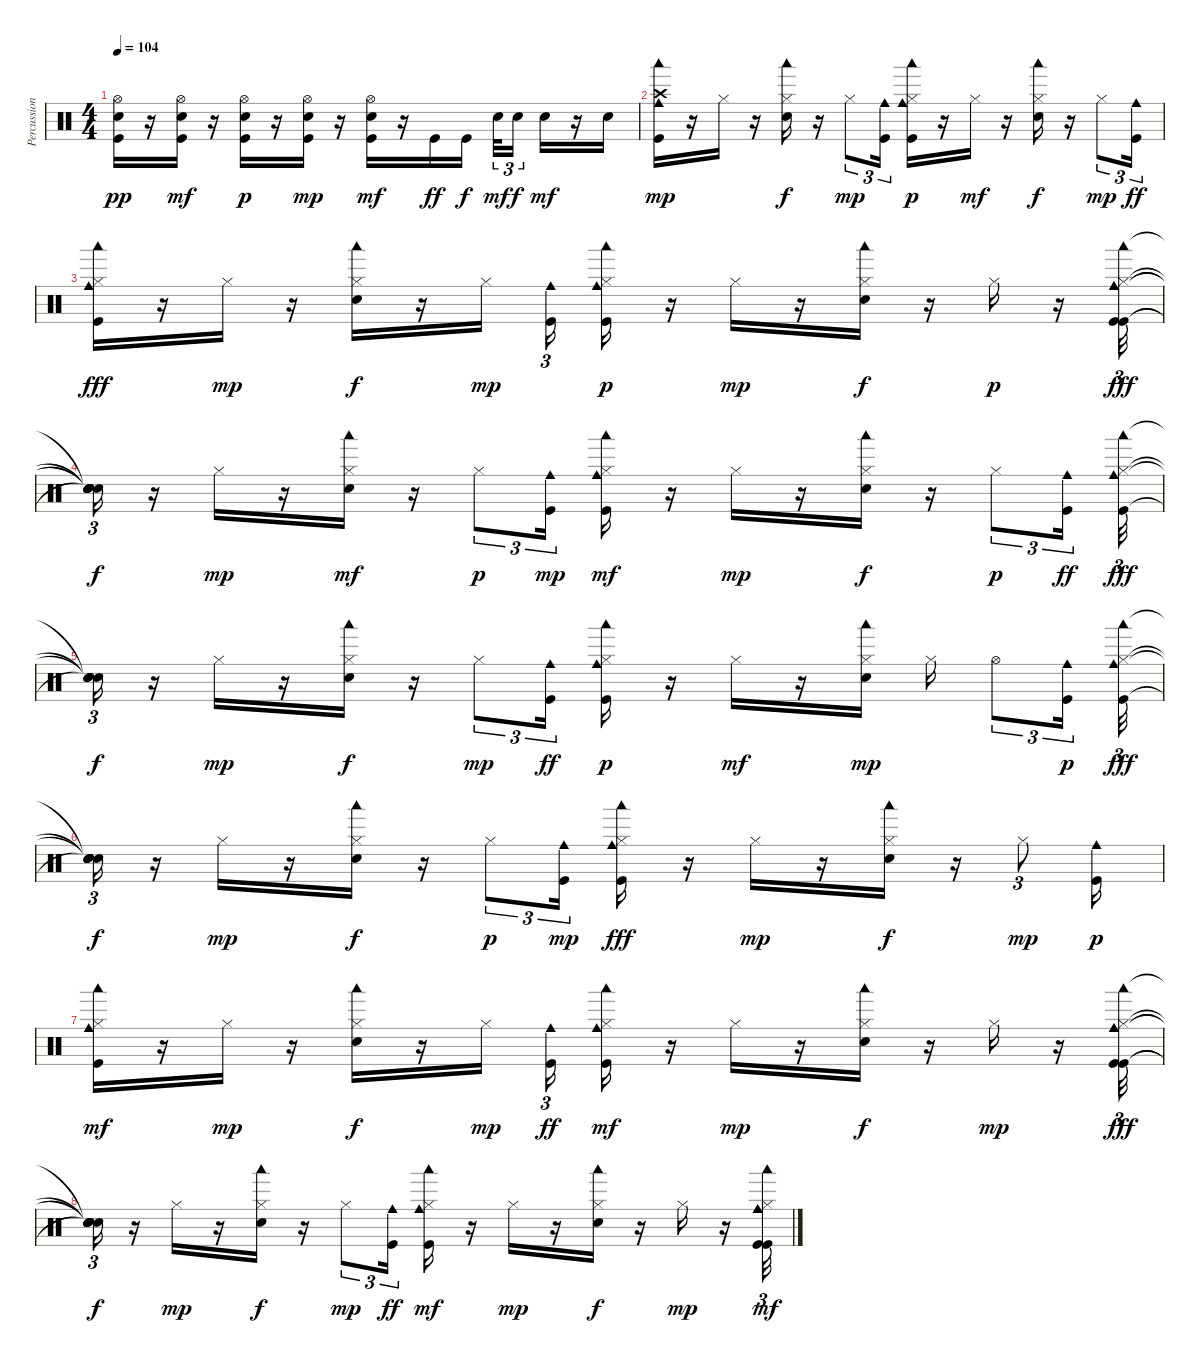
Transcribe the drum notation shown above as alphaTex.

\track ("Percussions (drums + hihats)" "Percussion") {instrument percussion}
\staff {score}
\articulation defaults
\ts (4 4)
\tempo 104
\clef neutral
\ks c
("Kick (hit)" "Electric Snare (hit)" "Hi-Hat (open)").16{dy pp} r.16 ("Hi-Hat (open)" "Electric Snare (hit)" "Kick (hit)").16{dy mf} r.16 ("Electric Snare (hit)" "Hi-Hat (open)" "Kick (hit)").16{dy p} r.16 ("Kick (hit)" "Electric Snare (hit)" "Hi-Hat (open)").16{dy mp} r.16 ("Electric Snare (hit)" "Kick (hit)" "Hi-Hat (open)").16{dy mf} r.16 "Kick (hit)".16{dy ff} "Kick (hit)".16{dy f} "Electric Snare (hit)".32{tu (3 2) dy mf} "Electric Snare (hit)".16{tu (3 2) dy f} "Electric Snare (hit)".16{dy mf} r.16 "Electric Snare (hit)".16 |
("Kick (hit)" "Woodblock low (hit)" "Crash high (hit)" "Cowbell medium (hit)").16{dy mp} r.16 "Hi-Hat (closed)".16 r.16 ("Hi-Hat (closed)" "Woodblock low (hit)" "Electric Snare (hit)").16{dy f} r.16 "Hi-Hat (closed)".8{tu (3 2) dy mp} ("Kick (hit)" "Cowbell medium (hit)").16{tu (3 2)} ("Kick (hit)" "Hi-Hat (closed)" "Woodblock low (hit)" "Cowbell medium (hit)").16{dy p} r.16 "Hi-Hat (closed)".16{dy mf} r.16 ("Woodblock low (hit)" "Electric Snare (hit)" "Hi-Hat (closed)").16{dy f} r.16 "Hi-Hat (closed)".8{tu (3 2) dy mp} ("Cowbell medium (hit)" "Kick (hit)").16{tu (3 2) dy ff} |
("Woodblock low (hit)" "Hi-Hat (closed)" "Cowbell medium (hit)" "Kick (hit)").16{dy fff} r.16 "Hi-Hat (closed)".16{dy mp} r.16 ("Electric Snare (hit)" "Woodblock low (hit)" "Hi-Hat (closed)").16{dy f} r.16 "Hi-Hat (closed)".16{dy mp} ("Kick (hit)" "Cowbell medium (hit)").16{tu (3 2)} ("Woodblock low (hit)" "Hi-Hat (closed)" "Kick (hit)" "Cowbell medium (hit)").16{dy p} r.16 "Hi-Hat (closed)".16{dy mp} r.16 ("Hi-Hat (closed)" "Woodblock low (hit)" "Electric Snare (hit)").16{dy f} r.16 "Hi-Hat (closed)".16{dy p} r.16 ("Kick (hit)" "Cowbell medium (hit)" "Cowbell medium (hit)" "Hi-Hat (closed)" "Kick (hit)" "Woodblock low (hit)").32{tu (3 2) dy fff} |
("Snare (hit)"{t} "Snare (hit)"{t} "Snare (hit)"{t} "Snare (hit)"{t} "Snare (hit)"{t} "Snare (hit)"{t}).16{tu (3 2) dy f} r.16 "Hi-Hat (closed)".16{dy mp} r.16 ("Electric Snare (hit)" "Woodblock low (hit)" "Hi-Hat (closed)").16{dy mf} r.16 "Hi-Hat (closed)".8{tu (3 2) dy p} ("Kick (hit)" "Cowbell medium (hit)").16{tu (3 2) dy mp} ("Woodblock low (hit)" "Cowbell medium (hit)" "Kick (hit)" "Hi-Hat (closed)").16{dy mf} r.16 "Hi-Hat (closed)".16{dy mp} r.16 ("Woodblock low (hit)" "Hi-Hat (closed)" "Electric Snare (hit)").16{dy f} r.16 "Hi-Hat (closed)".8{tu (3 2) dy p} ("Cowbell medium (hit)" "Kick (hit)").16{tu (3 2) dy ff} ("Woodblock low (hit)" "Cowbell medium (hit)" "Hi-Hat (closed)" "Kick (hit)").32{tu (3 2) dy fff} |
("Snare (hit)"{t} "Snare (hit)"{t} "Snare (hit)"{t} "Snare (hit)"{t}).16{tu (3 2) dy f} r.16 "Hi-Hat (closed)".16{dy mp} r.16 ("Woodblock low (hit)" "Electric Snare (hit)" "Hi-Hat (closed)").16{dy f} r.16 "Hi-Hat (closed)".8{tu (3 2) dy mp} ("Cowbell medium (hit)" "Kick (hit)").16{tu (3 2) dy ff} ("Hi-Hat (closed)" "Kick (hit)" "Woodblock low (hit)" "Cowbell medium (hit)").16{dy p} r.16 "Hi-Hat (closed)".16{dy mf} r.16 ("Electric Snare (hit)" "Woodblock low (hit)" "Hi-Hat (closed)").16{dy mp} "Hi-Hat (closed)".16 "Hi-Hat (open)".8{tu (3 2)} ("Kick (hit)" "Cowbell medium (hit)").16{tu (3 2) dy p} ("Hi-Hat (closed)" "Woodblock low (hit)" "Cowbell medium (hit)" "Kick (hit)").32{tu (3 2) dy fff} |
("Snare (hit)"{t} "Snare (hit)"{t} "Snare (hit)"{t} "Snare (hit)"{t}).16{tu (3 2) dy f} r.16 "Hi-Hat (closed)".16{dy mp} r.16 ("Hi-Hat (closed)" "Woodblock low (hit)" "Electric Snare (hit)").16{dy f} r.16 "Hi-Hat (closed)".8{tu (3 2) dy p} ("Kick (hit)" "Cowbell medium (hit)").16{tu (3 2) dy mp} ("Cowbell medium (hit)" "Hi-Hat (closed)" "Kick (hit)" "Woodblock low (hit)").16{dy fff} r.16 "Hi-Hat (closed)".16{dy mp} r.16 ("Woodblock low (hit)" "Electric Snare (hit)" "Hi-Hat (closed)").16{dy f} r.16 "Hi-Hat (closed)".8{tu (3 2) dy mp} ("Kick (hit)" "Cowbell medium (hit)").16{dy p} |
("Kick (hit)" "Woodblock low (hit)" "Cowbell medium (hit)" "Hi-Hat (closed)").16{dy mf} r.16 "Hi-Hat (closed)".16{dy mp} r.16 ("Hi-Hat (closed)" "Woodblock low (hit)" "Electric Snare (hit)").16{dy f} r.16 "Hi-Hat (closed)".16{dy mp} ("Cowbell medium (hit)" "Kick (hit)").16{tu (3 2) dy ff} ("Woodblock low (hit)" "Cowbell medium (hit)" "Kick (hit)" "Hi-Hat (closed)").16{dy mf} r.16 "Hi-Hat (closed)".16{dy mp} r.16 ("Woodblock low (hit)" "Electric Snare (hit)" "Hi-Hat (closed)").16{dy f} r.16 "Hi-Hat (closed)".16{dy mp} r.16 ("Kick (hit)" "Cowbell medium (hit)" "Cowbell medium (hit)" "Woodblock low (hit)" "Hi-Hat (closed)" "Kick (hit)").32{tu (3 2) dy fff} |
("Snare (hit)"{t} "Snare (hit)"{t} "Snare (hit)"{t} "Snare (hit)"{t} "Snare (hit)"{t} "Snare (hit)"{t}).16{tu (3 2) dy f} r.16 "Hi-Hat (closed)".16{dy mp} r.16 ("Electric Snare (hit)" "Woodblock low (hit)" "Hi-Hat (closed)").16{dy f} r.16 "Hi-Hat (closed)".8{tu (3 2) dy mp} ("Cowbell medium (hit)" "Kick (hit)").16{tu (3 2) dy ff} ("Kick (hit)" "Woodblock low (hit)" "Cowbell medium (hit)" "Hi-Hat (closed)").16{dy mf} r.16 "Hi-Hat (closed)".16{dy mp} r.16 ("Electric Snare (hit)" "Hi-Hat (closed)" "Woodblock low (hit)").16{dy f} r.16 "Hi-Hat (closed)".16{dy mp} r.16 ("Cowbell medium (hit)" "Kick (hit)" "Kick (hit)" "Cowbell medium (hit)" "Hi-Hat (closed)" "Woodblock low (hit)").32{tu (3 2) dy mf}
